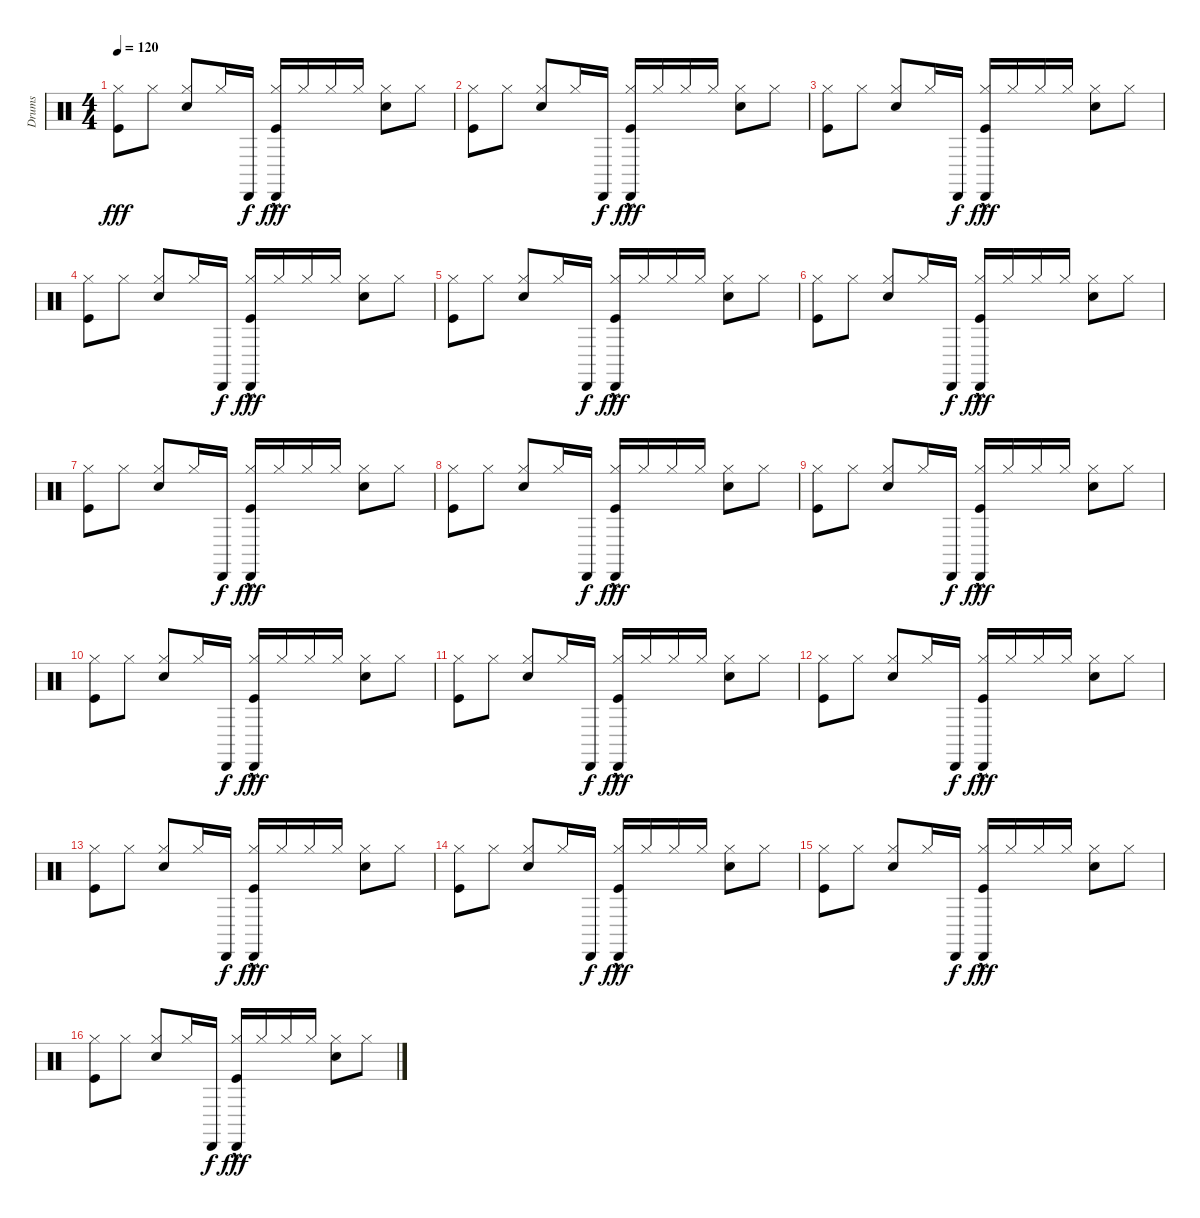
\track ("Drums" "Drums") {instrument percussion}
\staff {score}
\articulation defaults
\ts (4 4)
\tempo 120
\clef neutral
\ks c
("Kick (hit)" "Hi-Hat (closed)").8{dy fff} "Hi-Hat (closed)".8 ("Snare (hit) 2" "Hi-Hat (closed)").8 "Hi-Hat (closed)".16 "Cabasa (hit)".16{dy f} ("Cabasa (hit)"{hac} "Kick (hit)" "Hi-Hat (closed)").16{dy fff} "Hi-Hat (closed)".16 "Hi-Hat (closed)".16 "Hi-Hat (closed)".16 ("Snare (hit) 2" "Hi-Hat (closed)").8 "Hi-Hat (closed)".8 |
("Kick (hit)" "Hi-Hat (closed)").8 "Hi-Hat (closed)".8 ("Snare (hit) 2" "Hi-Hat (closed)").8 "Hi-Hat (closed)".16 "Cabasa (hit)".16{dy f} ("Cabasa (hit)"{hac} "Kick (hit)" "Hi-Hat (closed)").16{dy fff} "Hi-Hat (closed)".16 "Hi-Hat (closed)".16 "Hi-Hat (closed)".16 ("Snare (hit) 2" "Hi-Hat (closed)").8 "Hi-Hat (closed)".8 |
("Kick (hit)" "Hi-Hat (closed)").8 "Hi-Hat (closed)".8 ("Snare (hit) 2" "Hi-Hat (closed)").8 "Hi-Hat (closed)".16 "Cabasa (hit)".16{dy f} ("Cabasa (hit)"{hac} "Kick (hit)" "Hi-Hat (closed)").16{dy fff} "Hi-Hat (closed)".16 "Hi-Hat (closed)".16 "Hi-Hat (closed)".16 ("Snare (hit) 2" "Hi-Hat (closed)").8 "Hi-Hat (closed)".8 |
("Kick (hit)" "Hi-Hat (closed)").8 "Hi-Hat (closed)".8 ("Snare (hit) 2" "Hi-Hat (closed)").8 "Hi-Hat (closed)".16 "Cabasa (hit)".16{dy f} ("Cabasa (hit)"{hac} "Kick (hit)" "Hi-Hat (closed)").16{dy fff} "Hi-Hat (closed)".16 "Hi-Hat (closed)".16 "Hi-Hat (closed)".16 ("Snare (hit) 2" "Hi-Hat (closed)").8 "Hi-Hat (closed)".8 |
("Kick (hit)" "Hi-Hat (closed)").8 "Hi-Hat (closed)".8 ("Snare (hit) 2" "Hi-Hat (closed)").8 "Hi-Hat (closed)".16 "Cabasa (hit)".16{dy f} ("Cabasa (hit)"{hac} "Kick (hit)" "Hi-Hat (closed)").16{dy fff} "Hi-Hat (closed)".16 "Hi-Hat (closed)".16 "Hi-Hat (closed)".16 ("Snare (hit) 2" "Hi-Hat (closed)").8 "Hi-Hat (closed)".8 |
("Kick (hit)" "Hi-Hat (closed)").8 "Hi-Hat (closed)".8 ("Snare (hit) 2" "Hi-Hat (closed)").8 "Hi-Hat (closed)".16 "Cabasa (hit)".16{dy f} ("Cabasa (hit)"{hac} "Kick (hit)" "Hi-Hat (closed)").16{dy fff} "Hi-Hat (closed)".16 "Hi-Hat (closed)".16 "Hi-Hat (closed)".16 ("Snare (hit) 2" "Hi-Hat (closed)").8 "Hi-Hat (closed)".8 |
("Kick (hit)" "Hi-Hat (closed)").8 "Hi-Hat (closed)".8 ("Snare (hit) 2" "Hi-Hat (closed)").8 "Hi-Hat (closed)".16 "Cabasa (hit)".16{dy f} ("Cabasa (hit)"{hac} "Kick (hit)" "Hi-Hat (closed)").16{dy fff} "Hi-Hat (closed)".16 "Hi-Hat (closed)".16 "Hi-Hat (closed)".16 ("Snare (hit) 2" "Hi-Hat (closed)").8 "Hi-Hat (closed)".8 |
("Kick (hit)" "Hi-Hat (closed)").8 "Hi-Hat (closed)".8 ("Snare (hit) 2" "Hi-Hat (closed)").8 "Hi-Hat (closed)".16 "Cabasa (hit)".16{dy f} ("Cabasa (hit)"{hac} "Kick (hit)" "Hi-Hat (closed)").16{dy fff} "Hi-Hat (closed)".16 "Hi-Hat (closed)".16 "Hi-Hat (closed)".16 ("Snare (hit) 2" "Hi-Hat (closed)").8 "Hi-Hat (closed)".8 |
("Kick (hit)" "Hi-Hat (closed)").8 "Hi-Hat (closed)".8 ("Snare (hit) 2" "Hi-Hat (closed)").8 "Hi-Hat (closed)".16 "Cabasa (hit)".16{dy f} ("Cabasa (hit)"{hac} "Kick (hit)" "Hi-Hat (closed)").16{dy fff} "Hi-Hat (closed)".16 "Hi-Hat (closed)".16 "Hi-Hat (closed)".16 ("Snare (hit) 2" "Hi-Hat (closed)").8 "Hi-Hat (closed)".8 |
("Kick (hit)" "Hi-Hat (closed)").8 "Hi-Hat (closed)".8 ("Snare (hit) 2" "Hi-Hat (closed)").8 "Hi-Hat (closed)".16 "Cabasa (hit)".16{dy f} ("Cabasa (hit)"{hac} "Kick (hit)" "Hi-Hat (closed)").16{dy fff} "Hi-Hat (closed)".16 "Hi-Hat (closed)".16 "Hi-Hat (closed)".16 ("Snare (hit) 2" "Hi-Hat (closed)").8 "Hi-Hat (closed)".8 |
("Kick (hit)" "Hi-Hat (closed)").8 "Hi-Hat (closed)".8 ("Snare (hit) 2" "Hi-Hat (closed)").8 "Hi-Hat (closed)".16 "Cabasa (hit)".16{dy f} ("Cabasa (hit)"{hac} "Kick (hit)" "Hi-Hat (closed)").16{dy fff} "Hi-Hat (closed)".16 "Hi-Hat (closed)".16 "Hi-Hat (closed)".16 ("Snare (hit) 2" "Hi-Hat (closed)").8 "Hi-Hat (closed)".8 |
("Kick (hit)" "Hi-Hat (closed)").8 "Hi-Hat (closed)".8 ("Snare (hit) 2" "Hi-Hat (closed)").8 "Hi-Hat (closed)".16 "Cabasa (hit)".16{dy f} ("Cabasa (hit)"{hac} "Kick (hit)" "Hi-Hat (closed)").16{dy fff} "Hi-Hat (closed)".16 "Hi-Hat (closed)".16 "Hi-Hat (closed)".16 ("Snare (hit) 2" "Hi-Hat (closed)").8 "Hi-Hat (closed)".8 |
("Kick (hit)" "Hi-Hat (closed)").8 "Hi-Hat (closed)".8 ("Snare (hit) 2" "Hi-Hat (closed)").8 "Hi-Hat (closed)".16 "Cabasa (hit)".16{dy f} ("Cabasa (hit)"{hac} "Kick (hit)" "Hi-Hat (closed)").16{dy fff} "Hi-Hat (closed)".16 "Hi-Hat (closed)".16 "Hi-Hat (closed)".16 ("Snare (hit) 2" "Hi-Hat (closed)").8 "Hi-Hat (closed)".8 |
("Kick (hit)" "Hi-Hat (closed)").8 "Hi-Hat (closed)".8 ("Snare (hit) 2" "Hi-Hat (closed)").8 "Hi-Hat (closed)".16 "Cabasa (hit)".16{dy f} ("Cabasa (hit)"{hac} "Kick (hit)" "Hi-Hat (closed)").16{dy fff} "Hi-Hat (closed)".16 "Hi-Hat (closed)".16 "Hi-Hat (closed)".16 ("Snare (hit) 2" "Hi-Hat (closed)").8 "Hi-Hat (closed)".8 |
("Kick (hit)" "Hi-Hat (closed)").8 "Hi-Hat (closed)".8 ("Snare (hit) 2" "Hi-Hat (closed)").8 "Hi-Hat (closed)".16 "Cabasa (hit)".16{dy f} ("Cabasa (hit)"{hac} "Kick (hit)" "Hi-Hat (closed)").16{dy fff} "Hi-Hat (closed)".16 "Hi-Hat (closed)".16 "Hi-Hat (closed)".16 ("Snare (hit) 2" "Hi-Hat (closed)").8 "Hi-Hat (closed)".8 |
("Kick (hit)" "Hi-Hat (closed)").8 "Hi-Hat (closed)".8 ("Snare (hit) 2" "Hi-Hat (closed)").8 "Hi-Hat (closed)".16 "Cabasa (hit)".16{dy f} ("Cabasa (hit)"{hac} "Kick (hit)" "Hi-Hat (closed)").16{dy fff} "Hi-Hat (closed)".16 "Hi-Hat (closed)".16 "Hi-Hat (closed)".16 ("Snare (hit) 2" "Hi-Hat (closed)").8 "Hi-Hat (closed)".8
